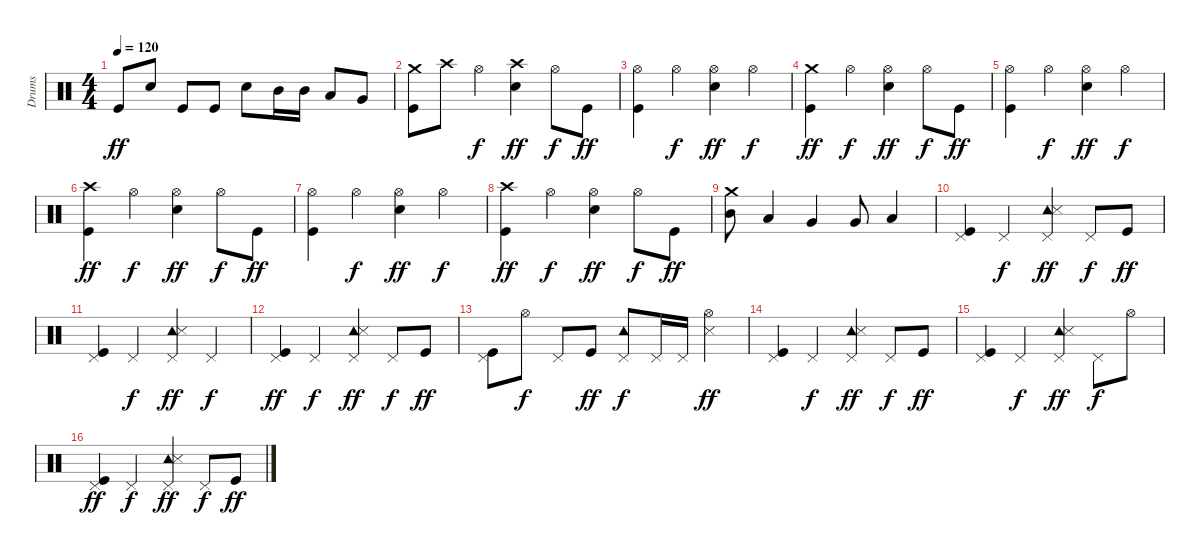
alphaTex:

\track ("Drums" "Drums") {instrument percussion}
\staff {score}
\articulation defaults
\ts (4 4)
\tempo 120
\clef neutral
\ks c "Kick (hit)".8{dy ff} "Electric Snare (hit)".8 "Kick (hit)".8 "Kick (hit)".8 "Electric Snare (hit)".8 "Mid Tom (hit)".16 "Mid Tom (hit)".16 "Low Tom (hit)".8 "Very Low Tom (hit)".8
|
("Crash medium (hit)" "Kick (hit)").8 "Crash high (hit)".8 "Hi-Hat (open)".4{dy f} ("Crash high (hit)" "Electric Snare (hit)").4{dy ff} "Hi-Hat (open)".8{dy f} "Kick (hit)".8{dy ff} |
("Hi-Hat (open)" "Kick (hit)").4 "Hi-Hat (open)".4{dy f} ("Hi-Hat (open)" "Electric Snare (hit)").4{dy ff} "Hi-Hat (open)".4{dy f} |
("Crash medium (hit)" "Kick (hit)").4{dy ff} "Hi-Hat (open)".4{dy f} ("Hi-Hat (open)" "Electric Snare (hit)").4{dy ff} "Hi-Hat (open)".8{dy f} "Kick (hit)".8{dy ff} |
("Hi-Hat (open)" "Kick (hit)").4 "Hi-Hat (open)".4{dy f} ("Hi-Hat (open)" "Electric Snare (hit)").4{dy ff} "Hi-Hat (open)".4{dy f} |
("Crash high (hit)" "Kick (hit)").4{dy ff} "Hi-Hat (open)".4{dy f} ("Hi-Hat (open)" "Electric Snare (hit)").4{dy ff} "Hi-Hat (open)".8{dy f} "Kick (hit)".8{dy ff} |
("Hi-Hat (open)" "Kick (hit)").4 "Hi-Hat (open)".4{dy f} ("Hi-Hat (open)" "Electric Snare (hit)").4{dy ff} "Hi-Hat (open)".4{dy f} |
("Crash high (hit)" "Kick (hit)").4{dy ff} "Hi-Hat (open)".4{dy f} ("Hi-Hat (open)" "Electric Snare (hit)").4{dy ff} "Hi-Hat (open)".8{dy f} "Kick (hit)".8{dy ff} |
("Crash medium (hit)" "Mid Tom (hit)").8 "Low Tom (hit)".4 "Very Low Tom (hit)".4 "Very Low Tom (hit)".8 "Low Floor Tom (hit)".4 |
("Pedal Hi-Hat (hit)" "Kick (hit)").4 "Pedal Hi-Hat (hit)".4{dy f} ("Pedal Hi-Hat (hit)" "Tambourine (hit)" "Snare (side stick) 3").4{dy ff} "Pedal Hi-Hat (hit)".8{dy f} "Kick (hit)".8{dy ff} |
("Pedal Hi-Hat (hit)" "Kick (hit)").4 "Pedal Hi-Hat (hit)".4{dy f} ("Pedal Hi-Hat (hit)" "Tambourine (hit)" "Snare (side stick) 3").4{dy ff} "Pedal Hi-Hat (hit)".4{dy f} |
("Pedal Hi-Hat (hit)" "Kick (hit)").4{dy ff} "Pedal Hi-Hat (hit)".4{dy f} ("Pedal Hi-Hat (hit)" "Tambourine (hit)" "Snare (side stick) 3").4{dy ff} "Pedal Hi-Hat (hit)".8{dy f} "Kick (hit)".8{dy ff} |
("Pedal Hi-Hat (hit)" "Kick (hit)").8 "Hi-Hat (open)".8{dy f} "Pedal Hi-Hat (hit)".8 "Kick (hit)".8{dy ff} ("Pedal Hi-Hat (hit)" "Tambourine (hit)").8{dy f} "Pedal Hi-Hat (hit)".16 "Pedal Hi-Hat (hit)".16 ("Hi-Hat (open)" "Snare (side stick) 3").4{dy ff} |
("Pedal Hi-Hat (hit)" "Kick (hit)").4 "Pedal Hi-Hat (hit)".4{dy f} ("Pedal Hi-Hat (hit)" "Tambourine (hit)" "Snare (side stick) 3").4{dy ff} "Pedal Hi-Hat (hit)".8{dy f} "Kick (hit)".8{dy ff} |
("Pedal Hi-Hat (hit)" "Kick (hit)").4 "Pedal Hi-Hat (hit)".4{dy f} ("Pedal Hi-Hat (hit)" "Tambourine (hit)" "Snare (side stick) 3").4{dy ff} "Pedal Hi-Hat (hit)".8{dy f} "Hi-Hat (open)".8 |
("Pedal Hi-Hat (hit)" "Kick (hit)").4{dy ff} "Pedal Hi-Hat (hit)".4{dy f} ("Pedal Hi-Hat (hit)" "Tambourine (hit)" "Snare (side stick) 3").4{dy ff} "Pedal Hi-Hat (hit)".8{dy f} "Kick (hit)".8{dy ff}
